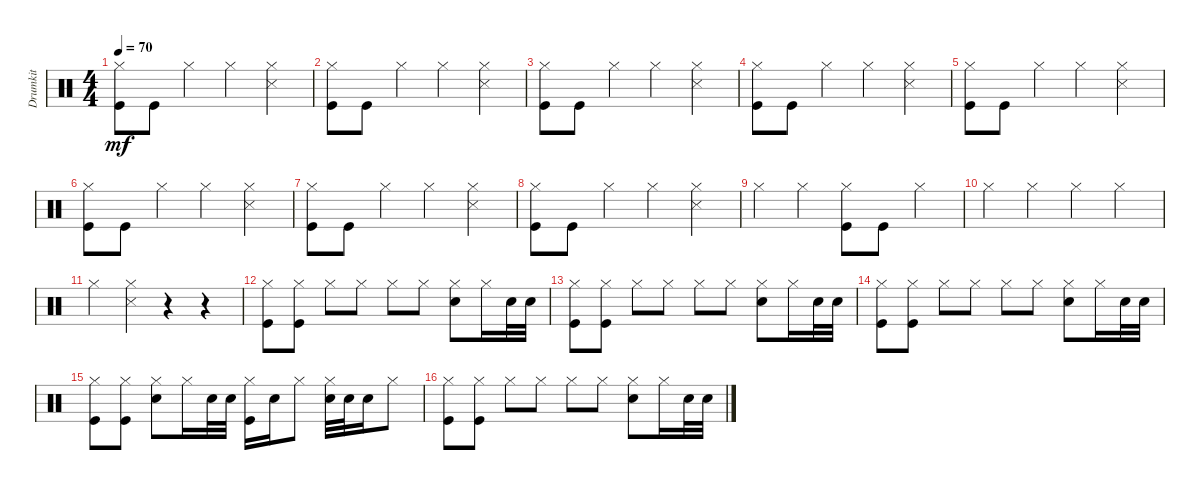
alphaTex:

\track ("Drumkit" "Drumkit") {instrument percussion}
\staff {score}
\articulation defaults
\ts (4 4)
\tempo 70
\clef neutral
\ks c
("Hi-Hat (closed)" "Kick (hit)").8{dy mf} "Kick (hit)".8 "Hi-Hat (closed)".4 "Hi-Hat (closed)".4 ("Hi-Hat (closed)" "Snare (side stick) 3").4 |
("Hi-Hat (closed)" "Kick (hit)").8 "Kick (hit)".8 "Hi-Hat (closed)".4 "Hi-Hat (closed)".4 ("Hi-Hat (closed)" "Snare (side stick) 3").4 |
("Hi-Hat (closed)" "Kick (hit)").8 "Kick (hit)".8 "Hi-Hat (closed)".4 "Hi-Hat (closed)".4 ("Hi-Hat (closed)" "Snare (side stick) 3").4 |
("Hi-Hat (closed)" "Kick (hit)").8 "Kick (hit)".8 "Hi-Hat (closed)".4 "Hi-Hat (closed)".4 ("Hi-Hat (closed)" "Snare (side stick) 3").4 |
("Hi-Hat (closed)" "Kick (hit)").8 "Kick (hit)".8 "Hi-Hat (closed)".4 "Hi-Hat (closed)".4 ("Hi-Hat (closed)" "Snare (side stick) 3").4 |
("Hi-Hat (closed)" "Kick (hit)").8 "Kick (hit)".8 "Hi-Hat (closed)".4 "Hi-Hat (closed)".4 ("Hi-Hat (closed)" "Snare (side stick) 3").4 |
("Hi-Hat (closed)" "Kick (hit)").8 "Kick (hit)".8 "Hi-Hat (closed)".4 "Hi-Hat (closed)".4 ("Hi-Hat (closed)" "Snare (side stick) 3").4 |
("Hi-Hat (closed)" "Kick (hit)").8 "Kick (hit)".8 "Hi-Hat (closed)".4 "Hi-Hat (closed)".4 ("Hi-Hat (closed)" "Snare (side stick) 3").4 |
"Hi-Hat (closed)".4 "Hi-Hat (closed)".4 ("Hi-Hat (closed)" "Kick (hit)").8 "Kick (hit)".8 "Hi-Hat (closed)".4 |
"Hi-Hat (closed)".4 "Hi-Hat (closed)".4 "Hi-Hat (closed)".4 "Hi-Hat (closed)".4 |
"Hi-Hat (closed)".4 ("Hi-Hat (closed)" "Snare (side stick) 3").4 r.4 r.4 |
("Hi-Hat (closed)" "Kick (hit)").8 ("Kick (hit)" "Hi-Hat (closed)").8 "Hi-Hat (closed)".8 "Hi-Hat (closed)".8 "Hi-Hat (closed)".8 "Hi-Hat (closed)".8 ("Hi-Hat (closed)" "Snare (hit) 2").8 "Hi-Hat (closed)".16 "Snare (hit) 2".32 "Snare (hit) 2".32 |
("Hi-Hat (closed)" "Kick (hit)").8 ("Kick (hit)" "Hi-Hat (closed)").8 "Hi-Hat (closed)".8 "Hi-Hat (closed)".8 "Hi-Hat (closed)".8 "Hi-Hat (closed)".8 ("Hi-Hat (closed)" "Snare (hit) 2").8 "Hi-Hat (closed)".16 "Snare (hit) 2".32 "Snare (hit) 2".32 |
("Hi-Hat (closed)" "Kick (hit)").8 ("Kick (hit)" "Hi-Hat (closed)").8 "Hi-Hat (closed)".8 "Hi-Hat (closed)".8 "Hi-Hat (closed)".8 "Hi-Hat (closed)".8 ("Hi-Hat (closed)" "Snare (hit) 2").8 "Hi-Hat (closed)".16 "Snare (hit) 2".32 "Snare (hit) 2".32 |
("Hi-Hat (closed)" "Kick (hit)").8 ("Kick (hit)" "Hi-Hat (closed)").8 ("Hi-Hat (closed)" "Snare (hit) 2").8 "Hi-Hat (closed)".16 "Snare (hit) 2".32 "Snare (hit) 2".32 ("Hi-Hat (closed)" "Kick (hit)").16 "Snare (hit) 2".16 "Hi-Hat (closed)".8 ("Hi-Hat (closed)" "Snare (hit) 2").32 "Snare (hit) 2".32 "Snare (hit) 2".16 "Hi-Hat (closed)".8 |
("Hi-Hat (closed)" "Kick (hit)").8 ("Kick (hit)" "Hi-Hat (closed)").8 "Hi-Hat (closed)".8 "Hi-Hat (closed)".8 "Hi-Hat (closed)".8 "Hi-Hat (closed)".8 ("Hi-Hat (closed)" "Snare (hit) 2").8 "Hi-Hat (closed)".16 "Snare (hit) 2".32 "Snare (hit) 2".32
